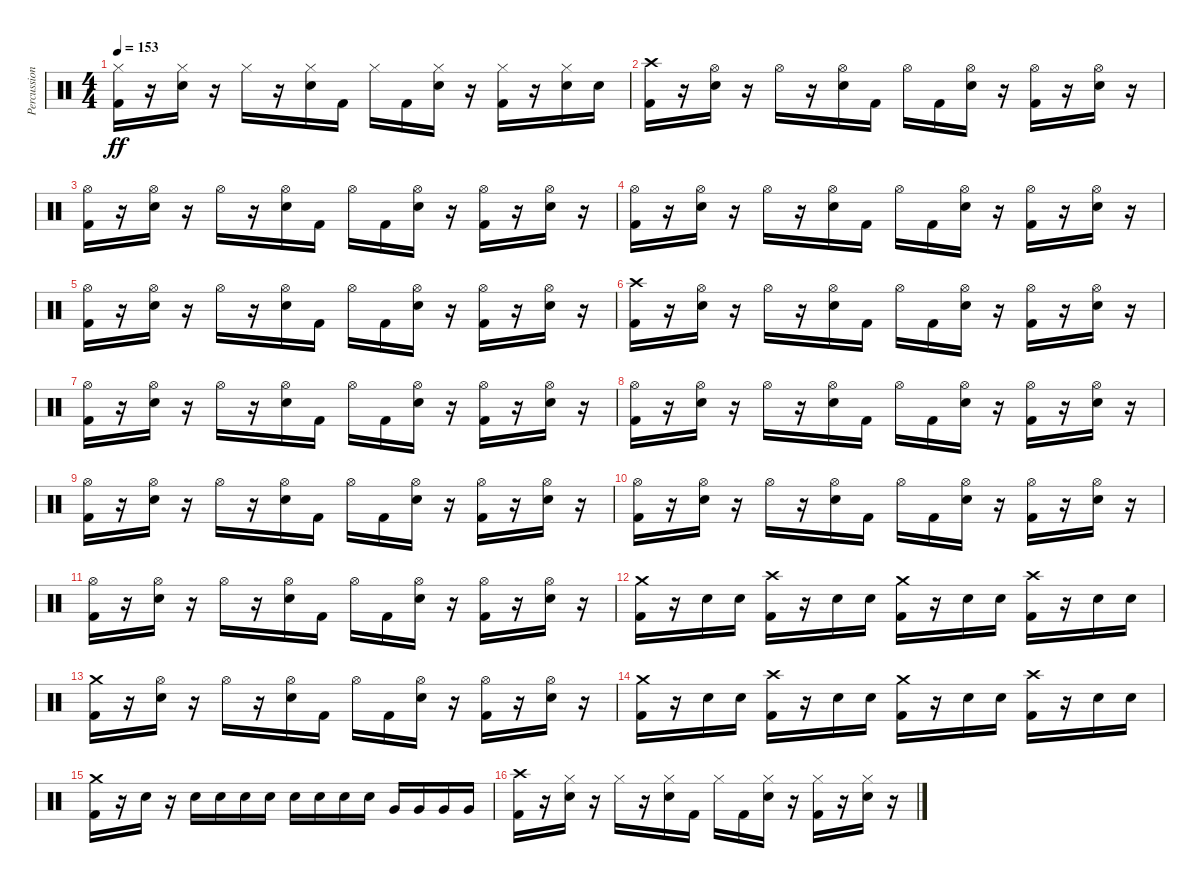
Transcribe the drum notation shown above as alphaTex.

\track ("Percussion" "Percussion") {instrument percussion}
\staff {score}
\articulation defaults
\ts (4 4)
\tempo 153
\clef neutral
\ks c
("Kick (hit) 2" "Hi-Hat (closed)").16{dy ff} r.16 ("Snare (hit) 2" "Hi-Hat (closed)").16 r.16 "Hi-Hat (closed)".16 r.16 ("Hi-Hat (closed)" "Snare (hit) 2").16 "Kick (hit) 2".16 "Hi-Hat (closed)".16 "Kick (hit) 2".16 ("Snare (hit) 2" "Hi-Hat (closed)").16 r.16 ("Kick (hit) 2" "Hi-Hat (closed)").16 r.16 ("Hi-Hat (closed)" "Snare (hit) 2").16 "Snare (hit) 2".16 |
("Crash high (hit)" "Kick (hit) 2").16 r.16 ("Hi-Hat (open)" "Snare (hit) 2").16 r.16 "Hi-Hat (open)".16 r.16 ("Hi-Hat (open)" "Snare (hit) 2").16 "Kick (hit) 2".16 "Hi-Hat (open)".16 "Kick (hit) 2".16 ("Hi-Hat (open)" "Snare (hit) 2").16 r.16 ("Hi-Hat (open)" "Kick (hit) 2").16 r.16 ("Hi-Hat (open)" "Snare (hit) 2").16 r.16 |
("Hi-Hat (open)" "Kick (hit) 2").16 r.16 ("Hi-Hat (open)" "Snare (hit) 2").16 r.16 "Hi-Hat (open)".16 r.16 ("Hi-Hat (open)" "Snare (hit) 2").16 "Kick (hit) 2".16 "Hi-Hat (open)".16 "Kick (hit) 2".16 ("Hi-Hat (open)" "Snare (hit) 2").16 r.16 ("Hi-Hat (open)" "Kick (hit) 2").16 r.16 ("Hi-Hat (open)" "Snare (hit) 2").16 r.16 |
("Kick (hit) 2" "Hi-Hat (open)").16 r.16 ("Snare (hit) 2" "Hi-Hat (open)").16 r.16 "Hi-Hat (open)".16 r.16 ("Hi-Hat (open)" "Snare (hit) 2").16 "Kick (hit) 2".16 "Hi-Hat (open)".16 "Kick (hit) 2".16 ("Snare (hit) 2" "Hi-Hat (open)").16 r.16 ("Kick (hit) 2" "Hi-Hat (open)").16 r.16 ("Snare (hit) 2" "Hi-Hat (open)").16 r.16 |
("Hi-Hat (open)" "Kick (hit) 2").16 r.16 ("Hi-Hat (open)" "Snare (hit) 2").16 r.16 "Hi-Hat (open)".16 r.16 ("Hi-Hat (open)" "Snare (hit) 2").16 "Kick (hit) 2".16 "Hi-Hat (open)".16 "Kick (hit) 2".16 ("Hi-Hat (open)" "Snare (hit) 2").16 r.16 ("Hi-Hat (open)" "Kick (hit) 2").16 r.16 ("Hi-Hat (open)" "Snare (hit) 2").16 r.16 |
("Crash high (hit)" "Kick (hit) 2").16 r.16 ("Hi-Hat (open)" "Snare (hit) 2").16 r.16 "Hi-Hat (open)".16 r.16 ("Snare (hit) 2" "Hi-Hat (open)").16 "Kick (hit) 2".16 "Hi-Hat (open)".16 "Kick (hit) 2".16 ("Hi-Hat (open)" "Snare (hit) 2").16 r.16 ("Hi-Hat (open)" "Kick (hit) 2").16 r.16 ("Hi-Hat (open)" "Snare (hit) 2").16 r.16 |
("Hi-Hat (open)" "Kick (hit) 2").16 r.16 ("Hi-Hat (open)" "Snare (hit) 2").16 r.16 "Hi-Hat (open)".16 r.16 ("Snare (hit) 2" "Hi-Hat (open)").16 "Kick (hit) 2".16 "Hi-Hat (open)".16 "Kick (hit) 2".16 ("Hi-Hat (open)" "Snare (hit) 2").16 r.16 ("Hi-Hat (open)" "Kick (hit) 2").16 r.16 ("Hi-Hat (open)" "Snare (hit) 2").16 r.16 |
("Kick (hit) 2" "Hi-Hat (open)").16 r.16 ("Snare (hit) 2" "Hi-Hat (open)").16 r.16 "Hi-Hat (open)".16 r.16 ("Snare (hit) 2" "Hi-Hat (open)").16 "Kick (hit) 2".16 "Hi-Hat (open)".16 "Kick (hit) 2".16 ("Snare (hit) 2" "Hi-Hat (open)").16 r.16 ("Kick (hit) 2" "Hi-Hat (open)").16 r.16 ("Snare (hit) 2" "Hi-Hat (open)").16 r.16 |
("Kick (hit) 2" "Hi-Hat (open)").16 r.16 ("Snare (hit) 2" "Hi-Hat (open)").16 r.16 "Hi-Hat (open)".16 r.16 ("Snare (hit) 2" "Hi-Hat (open)").16 "Kick (hit) 2".16 "Hi-Hat (open)".16 "Kick (hit) 2".16 ("Snare (hit) 2" "Hi-Hat (open)").16 r.16 ("Kick (hit) 2" "Hi-Hat (open)").16 r.16 ("Snare (hit) 2" "Hi-Hat (open)").16 r.16 |
("Hi-Hat (open)" "Kick (hit) 2").16 r.16 ("Hi-Hat (open)" "Snare (hit) 2").16 r.16 "Hi-Hat (open)".16 r.16 ("Snare (hit) 2" "Hi-Hat (open)").16 "Kick (hit) 2".16 "Hi-Hat (open)".16 "Kick (hit) 2".16 ("Hi-Hat (open)" "Snare (hit) 2").16 r.16 ("Hi-Hat (open)" "Kick (hit) 2").16 r.16 ("Hi-Hat (open)" "Snare (hit) 2").16 r.16 |
("Hi-Hat (open)" "Kick (hit) 2").16 r.16 ("Hi-Hat (open)" "Snare (hit) 2").16 r.16 "Hi-Hat (open)".16 r.16 ("Snare (hit) 2" "Hi-Hat (open)").16 "Kick (hit) 2".16 "Hi-Hat (open)".16 "Kick (hit) 2".16 ("Hi-Hat (open)" "Snare (hit) 2").16 r.16 ("Hi-Hat (open)" "Kick (hit) 2").16 r.16 ("Hi-Hat (open)" "Snare (hit) 2").16 r.16 |
("Kick (hit) 2" "Crash medium (hit)").16 r.16 "Snare (hit) 2".16 "Snare (hit) 2".16 ("Kick (hit) 2" "Crash high (hit)").16 r.16 "Snare (hit) 2".16 "Snare (hit) 2".16 ("Kick (hit) 2" "Crash medium (hit)").16 r.16 "Snare (hit) 2".16 "Snare (hit) 2".16 ("Kick (hit) 2" "Crash high (hit)").16 r.16 "Snare (hit) 2".16 "Snare (hit) 2".16 |
("Kick (hit) 2" "Crash medium (hit)").16 r.16 ("Snare (hit) 2" "Hi-Hat (open)").16 r.16 "Hi-Hat (open)".16 r.16 ("Snare (hit) 2" "Hi-Hat (open)").16 "Kick (hit) 2".16 "Hi-Hat (open)".16 "Kick (hit) 2".16 ("Snare (hit) 2" "Hi-Hat (open)").16 r.16 ("Kick (hit) 2" "Hi-Hat (open)").16 r.16 ("Snare (hit) 2" "Hi-Hat (open)").16 r.16 |
("Crash medium (hit)" "Kick (hit) 2").16 r.16 "Snare (hit) 2".16 "Snare (hit) 2".16 ("Crash high (hit)" "Kick (hit) 2").16 r.16 "Snare (hit) 2".16 "Snare (hit) 2".16 ("Crash medium (hit)" "Kick (hit) 2").16 r.16 "Snare (hit) 2".16 "Snare (hit) 2".16 ("Crash high (hit)" "Kick (hit) 2").16 r.16 "Snare (hit) 2".16 "Snare (hit) 2".16 |
("Kick (hit) 2" "Crash medium (hit)").16 r.16 "Snare (hit) 2".16 r.16 "Snare (hit) 2".16 "Snare (hit) 2".16 "Snare (hit) 2".16 "Snare (hit) 2".16 "Snare (hit) 2".16 "Snare (hit) 2".16 "Snare (hit) 2".16 "Snare (hit) 2".16 "Very Low Tom (hit)".16 "Very Low Tom (hit)".16 "Very Low Tom (hit)".16 "Very Low Tom (hit)".16 |
("Crash high (hit)" "Kick (hit) 2").16 r.16 ("Hi-Hat (closed)" "Snare (hit) 2").16 r.16 "Hi-Hat (closed)".16 r.16 ("Snare (hit) 2" "Hi-Hat (closed)").16 "Kick (hit) 2".16 "Hi-Hat (closed)".16 "Kick (hit) 2".16 ("Hi-Hat (closed)" "Snare (hit) 2").16 r.16 ("Hi-Hat (closed)" "Kick (hit) 2").16 r.16 ("Hi-Hat (closed)" "Snare (hit) 2").16 r.16
